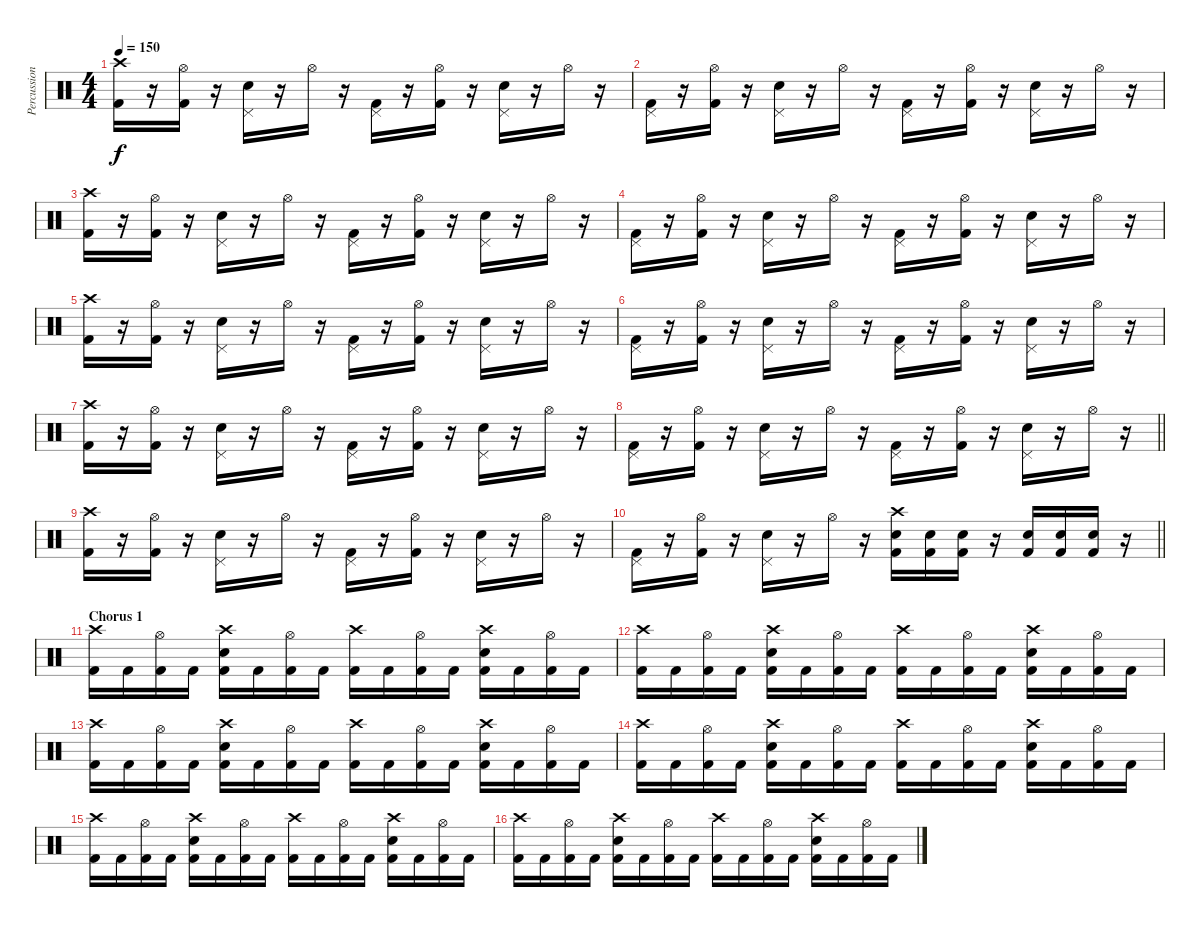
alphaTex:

\track ("Percussion" "Percussion") {instrument percussion}
\staff {score}
\articulation defaults
\ts (4 4)
\tempo 150
\clef neutral
\ks c
("Crash high (hit)" "Kick (hit) 2").16{dy f} r.16 ("Hi-Hat (open)" "Kick (hit) 2").16 r.16 ("Pedal Hi-Hat (hit)" "Snare (hit) 2").16 r.16 "Hi-Hat (open)".16 r.16 ("Pedal Hi-Hat (hit)" "Kick (hit) 2").16 r.16 ("Hi-Hat (open)" "Kick (hit) 2").16 r.16 ("Pedal Hi-Hat (hit)" "Snare (hit) 2").16 r.16 "Hi-Hat (open)".16 r.16 |
("Pedal Hi-Hat (hit)" "Kick (hit) 2").16 r.16 ("Hi-Hat (open)" "Kick (hit) 2").16 r.16 ("Pedal Hi-Hat (hit)" "Snare (hit) 2").16 r.16 "Hi-Hat (open)".16 r.16 ("Pedal Hi-Hat (hit)" "Kick (hit) 2").16 r.16 ("Hi-Hat (open)" "Kick (hit) 2").16 r.16 ("Pedal Hi-Hat (hit)" "Snare (hit) 2").16 r.16 "Hi-Hat (open)".16 r.16 |
("Crash high (hit)" "Kick (hit) 2").16 r.16 ("Hi-Hat (open)" "Kick (hit) 2").16 r.16 ("Pedal Hi-Hat (hit)" "Snare (hit) 2").16 r.16 "Hi-Hat (open)".16 r.16 ("Pedal Hi-Hat (hit)" "Kick (hit) 2").16 r.16 ("Hi-Hat (open)" "Kick (hit) 2").16 r.16 ("Pedal Hi-Hat (hit)" "Snare (hit) 2").16 r.16 "Hi-Hat (open)".16 r.16 |
("Pedal Hi-Hat (hit)" "Kick (hit) 2").16 r.16 ("Hi-Hat (open)" "Kick (hit) 2").16 r.16 ("Pedal Hi-Hat (hit)" "Snare (hit) 2").16 r.16 "Hi-Hat (open)".16 r.16 ("Pedal Hi-Hat (hit)" "Kick (hit) 2").16 r.16 ("Hi-Hat (open)" "Kick (hit) 2").16 r.16 ("Pedal Hi-Hat (hit)" "Snare (hit) 2").16 r.16 "Hi-Hat (open)".16 r.16 |
("Crash high (hit)" "Kick (hit) 2").16 r.16 ("Hi-Hat (open)" "Kick (hit) 2").16 r.16 ("Pedal Hi-Hat (hit)" "Snare (hit) 2").16 r.16 "Hi-Hat (open)".16 r.16 ("Pedal Hi-Hat (hit)" "Kick (hit) 2").16 r.16 ("Hi-Hat (open)" "Kick (hit) 2").16 r.16 ("Pedal Hi-Hat (hit)" "Snare (hit) 2").16 r.16 "Hi-Hat (open)".16 r.16 |
("Pedal Hi-Hat (hit)" "Kick (hit) 2").16 r.16 ("Hi-Hat (open)" "Kick (hit) 2").16 r.16 ("Pedal Hi-Hat (hit)" "Snare (hit) 2").16 r.16 "Hi-Hat (open)".16 r.16 ("Pedal Hi-Hat (hit)" "Kick (hit) 2").16 r.16 ("Hi-Hat (open)" "Kick (hit) 2").16 r.16 ("Pedal Hi-Hat (hit)" "Snare (hit) 2").16 r.16 "Hi-Hat (open)".16 r.16 |
("Crash high (hit)" "Kick (hit) 2").16 r.16 ("Hi-Hat (open)" "Kick (hit) 2").16 r.16 ("Pedal Hi-Hat (hit)" "Snare (hit) 2").16 r.16 "Hi-Hat (open)".16 r.16 ("Pedal Hi-Hat (hit)" "Kick (hit) 2").16 r.16 ("Hi-Hat (open)" "Kick (hit) 2").16 r.16 ("Pedal Hi-Hat (hit)" "Snare (hit) 2").16 r.16 "Hi-Hat (open)".16 r.16 |
\barLineRight lightlight
("Pedal Hi-Hat (hit)" "Kick (hit) 2").16 r.16 ("Hi-Hat (open)" "Kick (hit) 2").16 r.16 ("Pedal Hi-Hat (hit)" "Snare (hit) 2").16 r.16 "Hi-Hat (open)".16 r.16 ("Pedal Hi-Hat (hit)" "Kick (hit) 2").16 r.16 ("Hi-Hat (open)" "Kick (hit) 2").16 r.16 ("Pedal Hi-Hat (hit)" "Snare (hit) 2").16 r.16 "Hi-Hat (open)".16 r.16 |
("Crash high (hit)" "Kick (hit) 2").16 r.16 ("Hi-Hat (open)" "Kick (hit) 2").16 r.16 ("Pedal Hi-Hat (hit)" "Snare (hit) 2").16 r.16 "Hi-Hat (open)".16 r.16 ("Pedal Hi-Hat (hit)" "Kick (hit) 2").16 r.16 ("Hi-Hat (open)" "Kick (hit) 2").16 r.16 ("Pedal Hi-Hat (hit)" "Snare (hit) 2").16 r.16 "Hi-Hat (open)".16 r.16 |
\barLineRight lightlight
("Pedal Hi-Hat (hit)" "Kick (hit) 2").16 r.16 ("Hi-Hat (open)" "Kick (hit) 2").16 r.16 ("Pedal Hi-Hat (hit)" "Snare (hit) 2").16 r.16 "Hi-Hat (open)".16 r.16 ("Crash high (hit)" "Snare (hit) 2" "Kick (hit) 2").16 ("Snare (hit) 2" "Kick (hit) 2").16 ("Snare (hit) 2" "Kick (hit) 2").16 r.16 ("Snare (hit) 2" "Kick (hit) 2").16 ("Snare (hit) 2" "Kick (hit) 2").16 ("Snare (hit) 2" "Kick (hit) 2").16 r.16 |
\section ("" "Chorus 1")
("Crash high (hit)" "Kick (hit) 2").16 "Kick (hit) 2".16 ("Hi-Hat (open)" "Kick (hit) 2").16 "Kick (hit) 2".16 ("Crash high (hit)" "Snare (hit) 2" "Kick (hit) 2").16 "Kick (hit) 2".16 ("Hi-Hat (open)" "Kick (hit) 2").16 "Kick (hit) 2".16 ("Crash high (hit)" "Kick (hit) 2").16 "Kick (hit) 2".16 ("Hi-Hat (open)" "Kick (hit) 2").16 "Kick (hit) 2".16 ("Crash high (hit)" "Snare (hit) 2" "Kick (hit) 2").16 "Kick (hit) 2".16 ("Hi-Hat (open)" "Kick (hit) 2").16 "Kick (hit) 2".16 |
("Crash high (hit)" "Kick (hit) 2").16 "Kick (hit) 2".16 ("Hi-Hat (open)" "Kick (hit) 2").16 "Kick (hit) 2".16 ("Crash high (hit)" "Snare (hit) 2" "Kick (hit) 2").16 "Kick (hit) 2".16 ("Hi-Hat (open)" "Kick (hit) 2").16 "Kick (hit) 2".16 ("Crash high (hit)" "Kick (hit) 2").16 "Kick (hit) 2".16 ("Hi-Hat (open)" "Kick (hit) 2").16 "Kick (hit) 2".16 ("Crash high (hit)" "Snare (hit) 2" "Kick (hit) 2").16 "Kick (hit) 2".16 ("Hi-Hat (open)" "Kick (hit) 2").16 "Kick (hit) 2".16 |
("Crash high (hit)" "Kick (hit) 2").16 "Kick (hit) 2".16 ("Hi-Hat (open)" "Kick (hit) 2").16 "Kick (hit) 2".16 ("Crash high (hit)" "Snare (hit) 2" "Kick (hit) 2").16 "Kick (hit) 2".16 ("Hi-Hat (open)" "Kick (hit) 2").16 "Kick (hit) 2".16 ("Crash high (hit)" "Kick (hit) 2").16 "Kick (hit) 2".16 ("Hi-Hat (open)" "Kick (hit) 2").16 "Kick (hit) 2".16 ("Crash high (hit)" "Snare (hit) 2" "Kick (hit) 2").16 "Kick (hit) 2".16 ("Hi-Hat (open)" "Kick (hit) 2").16 "Kick (hit) 2".16 |
("Crash high (hit)" "Kick (hit) 2").16 "Kick (hit) 2".16 ("Hi-Hat (open)" "Kick (hit) 2").16 "Kick (hit) 2".16 ("Crash high (hit)" "Snare (hit) 2" "Kick (hit) 2").16 "Kick (hit) 2".16 ("Hi-Hat (open)" "Kick (hit) 2").16 "Kick (hit) 2".16 ("Crash high (hit)" "Kick (hit) 2").16 "Kick (hit) 2".16 ("Hi-Hat (open)" "Kick (hit) 2").16 "Kick (hit) 2".16 ("Crash high (hit)" "Snare (hit) 2" "Kick (hit) 2").16 "Kick (hit) 2".16 ("Hi-Hat (open)" "Kick (hit) 2").16 "Kick (hit) 2".16 |
("Crash high (hit)" "Kick (hit) 2").16 "Kick (hit) 2".16 ("Hi-Hat (open)" "Kick (hit) 2").16 "Kick (hit) 2".16 ("Crash high (hit)" "Snare (hit) 2" "Kick (hit) 2").16 "Kick (hit) 2".16 ("Hi-Hat (open)" "Kick (hit) 2").16 "Kick (hit) 2".16 ("Crash high (hit)" "Kick (hit) 2").16 "Kick (hit) 2".16 ("Hi-Hat (open)" "Kick (hit) 2").16 "Kick (hit) 2".16 ("Crash high (hit)" "Snare (hit) 2" "Kick (hit) 2").16 "Kick (hit) 2".16 ("Hi-Hat (open)" "Kick (hit) 2").16 "Kick (hit) 2".16 |
("Crash high (hit)" "Kick (hit) 2").16 "Kick (hit) 2".16 ("Hi-Hat (open)" "Kick (hit) 2").16 "Kick (hit) 2".16 ("Crash high (hit)" "Snare (hit) 2" "Kick (hit) 2").16 "Kick (hit) 2".16 ("Hi-Hat (open)" "Kick (hit) 2").16 "Kick (hit) 2".16 ("Crash high (hit)" "Kick (hit) 2").16 "Kick (hit) 2".16 ("Hi-Hat (open)" "Kick (hit) 2").16 "Kick (hit) 2".16 ("Crash high (hit)" "Snare (hit) 2" "Kick (hit) 2").16 "Kick (hit) 2".16 ("Hi-Hat (open)" "Kick (hit) 2").16 "Kick (hit) 2".16
